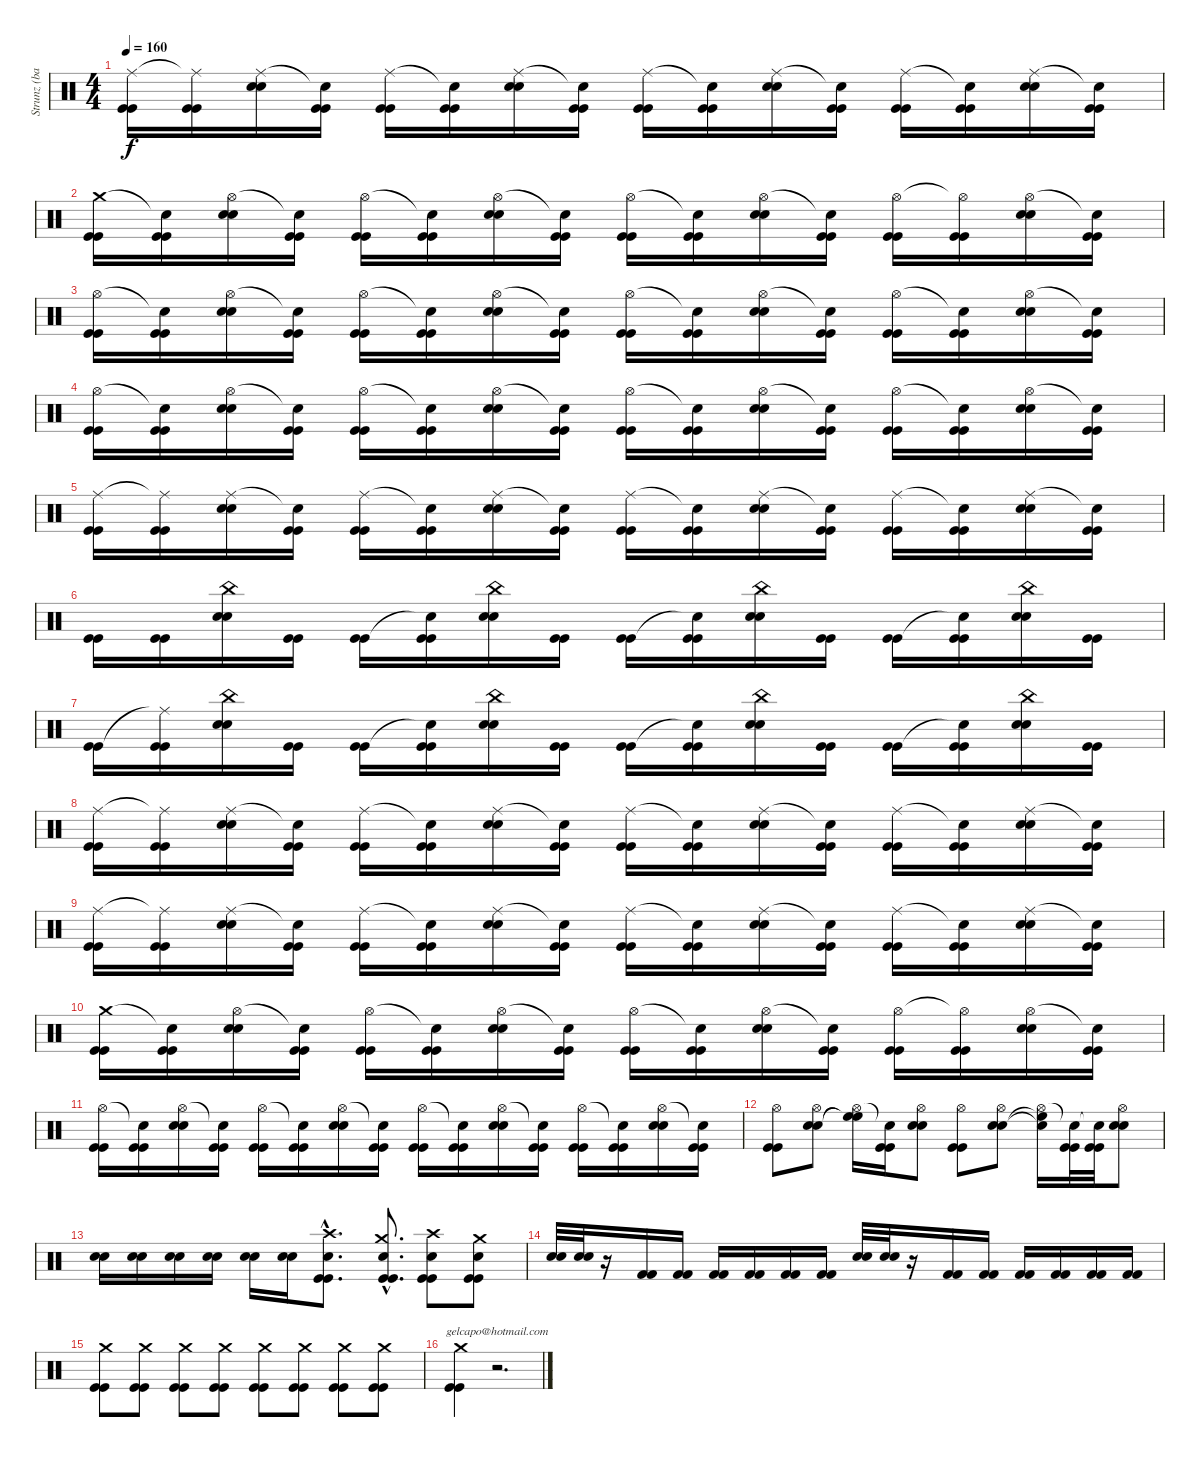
\track ("Strunz (bateria)" "Strunz (ba") {instrument percussion}
\staff {score}
\articulation defaults
\chord ("gelcapo@hotmail.com") {firstfret 0}
\ts (4 4)
\tempo 160
\clef neutral
\ks c
("Ride (middle)" "Kick (hit)" "Kick (hit)").16{dy f} ("Ride (middle)"{t} "Kick (hit)" "Kick (hit)").16 ("Ride (middle)" "Snare (hit) 2" "Snare (hit) 2").16 ("Snare (hit)"{t} "Kick (hit)" "Kick (hit)").16 ("Ride (middle)" "Kick (hit)" "Kick (hit)").16 ("Snare (hit)"{t} "Kick (hit)" "Kick (hit)").16 ("Ride (middle)" "Snare (hit) 2" "Snare (hit) 2").16 ("Snare (hit)"{t} "Kick (hit)" "Kick (hit)").16 ("Ride (middle)" "Kick (hit)" "Kick (hit)").16 ("Snare (hit)"{t} "Kick (hit)" "Kick (hit)").16 ("Ride (middle)" "Snare (hit) 2" "Snare (hit) 2").16 ("Snare (hit)"{t} "Kick (hit)" "Kick (hit)").16 ("Ride (middle)" "Kick (hit)" "Kick (hit)").16 ("Snare (hit)"{t} "Kick (hit)" "Kick (hit)").16 ("Ride (middle)" "Snare (hit) 2" "Snare (hit) 2").16 ("Snare (hit)"{t} "Kick (hit)" "Kick (hit)").16 |
("Crash medium (hit)" "Kick (hit)" "Kick (hit)").16 ("Snare (hit)"{t} "Kick (hit)" "Kick (hit)").16 ("Hi-Hat (open)" "Snare (hit) 2" "Snare (hit) 2").16 ("Snare (hit)"{t} "Kick (hit)" "Kick (hit)").16 ("Hi-Hat (open)" "Kick (hit)" "Kick (hit)").16 ("Snare (hit)"{t} "Kick (hit)" "Kick (hit)").16 ("Hi-Hat (open)" "Snare (hit) 2" "Snare (hit) 2").16 ("Snare (hit)"{t} "Kick (hit)" "Kick (hit)").16 ("Hi-Hat (open)" "Kick (hit)" "Kick (hit)").16 ("Snare (hit)"{t} "Kick (hit)" "Kick (hit)").16 ("Hi-Hat (open)" "Snare (hit) 2" "Snare (hit) 2").16 ("Snare (hit)"{t} "Kick (hit)" "Kick (hit)").16 ("Hi-Hat (open)" "Kick (hit)" "Kick (hit)").16 ("Hi-Hat (open)"{t} "Kick (hit)" "Kick (hit)").16 ("Hi-Hat (open)" "Snare (hit) 2" "Snare (hit) 2").16 ("Snare (hit)"{t} "Kick (hit)" "Kick (hit)").16 |
("Hi-Hat (open)" "Kick (hit)" "Kick (hit)").16 ("Snare (hit)"{t} "Kick (hit)" "Kick (hit)").16 ("Hi-Hat (open)" "Snare (hit) 2" "Snare (hit) 2").16 ("Snare (hit)"{t} "Kick (hit)" "Kick (hit)").16 ("Hi-Hat (open)" "Kick (hit)" "Kick (hit)").16 ("Snare (hit)"{t} "Kick (hit)" "Kick (hit)").16 ("Hi-Hat (open)" "Snare (hit) 2" "Snare (hit) 2").16 ("Snare (hit)"{t} "Kick (hit)" "Kick (hit)").16 ("Hi-Hat (open)" "Kick (hit)" "Kick (hit)").16 ("Snare (hit)"{t} "Kick (hit)" "Kick (hit)").16 ("Hi-Hat (open)" "Snare (hit) 2" "Snare (hit) 2").16 ("Snare (hit)"{t} "Kick (hit)" "Kick (hit)").16 ("Hi-Hat (open)" "Kick (hit)" "Kick (hit)").16 ("Snare (hit)"{t} "Kick (hit)" "Kick (hit)").16 ("Hi-Hat (open)" "Snare (hit) 2" "Snare (hit) 2").16 ("Snare (hit)"{t} "Kick (hit)" "Kick (hit)").16 |
("Hi-Hat (open)" "Kick (hit)" "Kick (hit)").16 ("Snare (hit)"{t} "Kick (hit)" "Kick (hit)").16 ("Hi-Hat (open)" "Snare (hit) 2" "Snare (hit) 2").16 ("Snare (hit)"{t} "Kick (hit)" "Kick (hit)").16 ("Hi-Hat (open)" "Kick (hit)" "Kick (hit)").16 ("Snare (hit)"{t} "Kick (hit)" "Kick (hit)").16 ("Hi-Hat (open)" "Snare (hit) 2" "Snare (hit) 2").16 ("Snare (hit)"{t} "Kick (hit)" "Kick (hit)").16 ("Hi-Hat (open)" "Kick (hit)" "Kick (hit)").16 ("Snare (hit)"{t} "Kick (hit)" "Kick (hit)").16 ("Hi-Hat (open)" "Snare (hit) 2" "Snare (hit) 2").16 ("Snare (hit)"{t} "Kick (hit)" "Kick (hit)").16 ("Hi-Hat (open)" "Kick (hit)" "Kick (hit)").16 ("Snare (hit)"{t} "Kick (hit)" "Kick (hit)").16 ("Hi-Hat (open)" "Snare (hit) 2" "Snare (hit) 2").16 ("Snare (hit)"{t} "Kick (hit)" "Kick (hit)").16 |
("Ride (middle)" "Kick (hit)" "Kick (hit)").16 ("Ride (middle)"{t} "Kick (hit)" "Kick (hit)").16 ("Ride (middle)" "Snare (hit) 2" "Snare (hit) 2").16 ("Snare (hit)"{t} "Kick (hit)" "Kick (hit)").16 ("Ride (middle)" "Kick (hit)" "Kick (hit)").16 ("Snare (hit)"{t} "Kick (hit)" "Kick (hit)").16 ("Ride (middle)" "Snare (hit) 2" "Snare (hit) 2").16 ("Snare (hit)"{t} "Kick (hit)" "Kick (hit)").16 ("Ride (middle)" "Kick (hit)" "Kick (hit)").16 ("Snare (hit)"{t} "Kick (hit)" "Kick (hit)").16 ("Ride (middle)" "Snare (hit) 2" "Snare (hit) 2").16 ("Snare (hit)"{t} "Kick (hit)" "Kick (hit)").16 ("Ride (middle)" "Kick (hit)" "Kick (hit)").16 ("Snare (hit)"{t} "Kick (hit)" "Kick (hit)").16 ("Ride (middle)" "Snare (hit) 2" "Snare (hit) 2").16 ("Snare (hit)"{t} "Kick (hit)" "Kick (hit)").16 |
("Kick (hit)" "Kick (hit)").16 ("Kick (hit)" "Kick (hit)").16 ("China (hit)" "Snare (hit) 2" "Snare (hit) 2").16 ("Kick (hit)" "Kick (hit)").16 ("Kick (hit)" "Kick (hit)").16 ("Snare (hit)"{t} "Kick (hit)" "Kick (hit)").16 ("China (hit)" "Snare (hit) 2" "Snare (hit) 2").16 ("Kick (hit)" "Kick (hit)").16 ("Kick (hit)" "Kick (hit)").16 ("Snare (hit)"{t} "Kick (hit)" "Kick (hit)").16 ("China (hit)" "Snare (hit) 2" "Snare (hit) 2").16 ("Kick (hit)" "Kick (hit)").16 ("Kick (hit)" "Kick (hit)").16 ("Snare (hit)"{t} "Kick (hit)" "Kick (hit)").16 ("China (hit)" "Snare (hit) 2" "Snare (hit) 2").16 ("Kick (hit)" "Kick (hit)").16 |
("Kick (hit)" "Kick (hit)").16 ("Ride (middle)"{t} "Kick (hit)" "Kick (hit)").16 ("China (hit)" "Snare (hit) 2" "Snare (hit) 2").16 ("Kick (hit)" "Kick (hit)").16 ("Kick (hit)" "Kick (hit)").16 ("Snare (hit)"{t} "Kick (hit)" "Kick (hit)").16 ("China (hit)" "Snare (hit) 2" "Snare (hit) 2").16 ("Kick (hit)" "Kick (hit)").16 ("Kick (hit)" "Kick (hit)").16 ("Snare (hit)"{t} "Kick (hit)" "Kick (hit)").16 ("China (hit)" "Snare (hit) 2" "Snare (hit) 2").16 ("Kick (hit)" "Kick (hit)").16 ("Kick (hit)" "Kick (hit)").16 ("Snare (hit)"{t} "Kick (hit)" "Kick (hit)").16 ("China (hit)" "Snare (hit) 2" "Snare (hit) 2").16 ("Kick (hit)" "Kick (hit)").16 |
("Ride (middle)" "Kick (hit)" "Kick (hit)").16 ("Ride (middle)"{t} "Kick (hit)" "Kick (hit)").16 ("Ride (middle)" "Snare (hit) 2" "Snare (hit) 2").16 ("Snare (hit)"{t} "Kick (hit)" "Kick (hit)").16 ("Ride (middle)" "Kick (hit)" "Kick (hit)").16 ("Snare (hit)"{t} "Kick (hit)" "Kick (hit)").16 ("Ride (middle)" "Snare (hit) 2" "Snare (hit) 2").16 ("Snare (hit)"{t} "Kick (hit)" "Kick (hit)").16 ("Ride (middle)" "Kick (hit)" "Kick (hit)").16 ("Snare (hit)"{t} "Kick (hit)" "Kick (hit)").16 ("Ride (middle)" "Snare (hit) 2" "Snare (hit) 2").16 ("Snare (hit)"{t} "Kick (hit)" "Kick (hit)").16 ("Ride (middle)" "Kick (hit)" "Kick (hit)").16 ("Snare (hit)"{t} "Kick (hit)" "Kick (hit)").16 ("Ride (middle)" "Snare (hit) 2" "Snare (hit) 2").16 ("Snare (hit)"{t} "Kick (hit)" "Kick (hit)").16 |
("Ride (middle)" "Kick (hit)" "Kick (hit)").16 ("Ride (middle)"{t} "Kick (hit)" "Kick (hit)").16 ("Ride (middle)" "Snare (hit) 2" "Snare (hit) 2").16 ("Snare (hit)"{t} "Kick (hit)" "Kick (hit)").16 ("Ride (middle)" "Kick (hit)" "Kick (hit)").16 ("Snare (hit)"{t} "Kick (hit)" "Kick (hit)").16 ("Ride (middle)" "Snare (hit) 2" "Snare (hit) 2").16 ("Snare (hit)"{t} "Kick (hit)" "Kick (hit)").16 ("Ride (middle)" "Kick (hit)" "Kick (hit)").16 ("Snare (hit)"{t} "Kick (hit)" "Kick (hit)").16 ("Ride (middle)" "Snare (hit) 2" "Snare (hit) 2").16 ("Snare (hit)"{t} "Kick (hit)" "Kick (hit)").16 ("Ride (middle)" "Kick (hit)" "Kick (hit)").16 ("Snare (hit)"{t} "Kick (hit)" "Kick (hit)").16 ("Ride (middle)" "Snare (hit) 2" "Snare (hit) 2").16 ("Snare (hit)"{t} "Kick (hit)" "Kick (hit)").16 |
("Crash medium (hit)" "Kick (hit)" "Kick (hit)").16 ("Snare (hit)"{t} "Kick (hit)" "Kick (hit)").16 ("Hi-Hat (open)" "Snare (hit) 2" "Snare (hit) 2").16 ("Snare (hit)"{t} "Kick (hit)" "Kick (hit)").16 ("Hi-Hat (open)" "Kick (hit)" "Kick (hit)").16 ("Snare (hit)"{t} "Kick (hit)" "Kick (hit)").16 ("Hi-Hat (open)" "Snare (hit) 2" "Snare (hit) 2").16 ("Snare (hit)"{t} "Kick (hit)" "Kick (hit)").16 ("Hi-Hat (open)" "Kick (hit)" "Kick (hit)").16 ("Snare (hit)"{t} "Kick (hit)" "Kick (hit)").16 ("Hi-Hat (open)" "Snare (hit) 2" "Snare (hit) 2").16 ("Snare (hit)"{t} "Kick (hit)" "Kick (hit)").16 ("Hi-Hat (open)" "Kick (hit)" "Kick (hit)").16 ("Hi-Hat (open)"{t} "Kick (hit)" "Kick (hit)").16 ("Hi-Hat (open)" "Snare (hit) 2" "Snare (hit) 2").16 ("Snare (hit)"{t} "Kick (hit)" "Kick (hit)").16 |
("Hi-Hat (open)" "Kick (hit)" "Kick (hit)").16 ("Snare (hit)"{t} "Kick (hit)" "Kick (hit)").16 ("Hi-Hat (open)" "Snare (hit) 2" "Snare (hit) 2").16 ("Snare (hit)"{t} "Kick (hit)" "Kick (hit)").16 ("Hi-Hat (open)" "Kick (hit)" "Kick (hit)").16 ("Snare (hit)"{t} "Kick (hit)" "Kick (hit)").16 ("Hi-Hat (open)" "Snare (hit) 2" "Snare (hit) 2").16 ("Snare (hit)"{t} "Kick (hit)" "Kick (hit)").16 ("Hi-Hat (open)" "Kick (hit)" "Kick (hit)").16 ("Snare (hit)"{t} "Kick (hit)" "Kick (hit)").16 ("Hi-Hat (open)" "Snare (hit) 2" "Snare (hit) 2").16 ("Snare (hit)"{t} "Kick (hit)" "Kick (hit)").16 ("Hi-Hat (open)" "Kick (hit)" "Kick (hit)").16 ("Snare (hit)"{t} "Kick (hit)" "Kick (hit)").16 ("Hi-Hat (open)" "Snare (hit) 2" "Snare (hit) 2").16 ("Snare (hit)"{t} "Kick (hit)" "Kick (hit)").16 |
("Hi-Hat (open)" "Kick (hit)" "Kick (hit)").8 ("Hi-Hat (open)" "Snare (hit) 2" "Snare (hit) 2").8 ("Hi-Hat (open)" "High Floor Tom (hit)"{t} "High Floor Tom (hit)"{t}).16 ("Snare (hit)"{t} "Kick (hit)" "Kick (hit)").16 ("Hi-Hat (open)" "Snare (hit) 2" "Snare (hit) 2").8 ("Hi-Hat (open)" "Kick (hit)" "Kick (hit)").8 ("Hi-Hat (open)" "Snare (hit) 2" "Snare (hit) 2").8 ("Hi-Hat (open)" "Snare (hit)"{t} "High Floor Tom (hit)"{t}).16 ("Snare (hit)"{t} "Kick (hit)" "Kick (hit)").32 ("Snare (hit)"{t} "Kick (hit)" "Kick (hit)").32 ("Hi-Hat (open)" "Snare (hit) 2" "Snare (hit) 2").8 |
("Snare (hit) 2" "Snare (hit) 2").16 ("Snare (hit) 2" "Snare (hit) 2").16 ("Snare (hit) 2" "Snare (hit) 2").16 ("Snare (hit) 2" "Snare (hit) 2").16 ("Snare (hit) 2" "Snare (hit) 2").16 ("Snare (hit) 2" "Snare (hit) 2").16 ("Crash high (hit)"{hac} "Snare (hit) 2"{hac} "Kick (hit)"{hac} "Kick (hit)"{hac}).8{d} ("Crash medium (hit)"{hac} "Electric Snare (hit)"{hac} "Kick (hit)"{hac} "Kick (hit)"{hac}).8{d} ("Crash high (hit)" "Snare (hit) 2" "Kick (hit)" "Kick (hit)").8 ("Crash medium (hit)" "Snare (hit) 2" "Kick (hit)" "Kick (hit)").8 |
("Snare (hit) 2" "Snare (hit) 2").32 ("Snare (hit) 2" "Snare (hit) 2").32 r.16 ("Kick (hit) 2" "Kick (hit) 2").16 ("Kick (hit) 2" "Kick (hit) 2").16 ("Kick (hit) 2" "Kick (hit) 2").16 ("Kick (hit) 2" "Kick (hit) 2").16 ("Kick (hit) 2" "Kick (hit) 2").16 ("Kick (hit) 2" "Kick (hit) 2").16 ("Snare (hit) 2" "Snare (hit) 2").32 ("Snare (hit) 2" "Snare (hit) 2").32 r.16 ("Kick (hit) 2" "Kick (hit) 2").16 ("Kick (hit) 2" "Kick (hit) 2").16 ("Kick (hit) 2" "Kick (hit) 2").16 ("Kick (hit) 2" "Kick (hit) 2").16 ("Kick (hit) 2" "Kick (hit) 2").16 ("Kick (hit) 2" "Kick (hit) 2").16 |
("Crash medium (hit)" "Kick (hit)" "Kick (hit)").8 ("Crash medium (hit)" "Kick (hit)" "Kick (hit)").8 ("Crash medium (hit)" "Kick (hit)" "Kick (hit)").8 ("Crash medium (hit)" "Kick (hit)" "Kick (hit)").8 ("Crash medium (hit)" "Kick (hit)" "Kick (hit)").8 ("Crash medium (hit)" "Kick (hit)" "Kick (hit)").8 ("Crash medium (hit)" "Kick (hit)" "Kick (hit)").8 ("Crash medium (hit)" "Kick (hit)" "Kick (hit)").8 |
("Crash medium (hit)" "Kick (hit)" "Kick (hit)").4 r.2{d ch "gelcapo@hotmail.com"}
